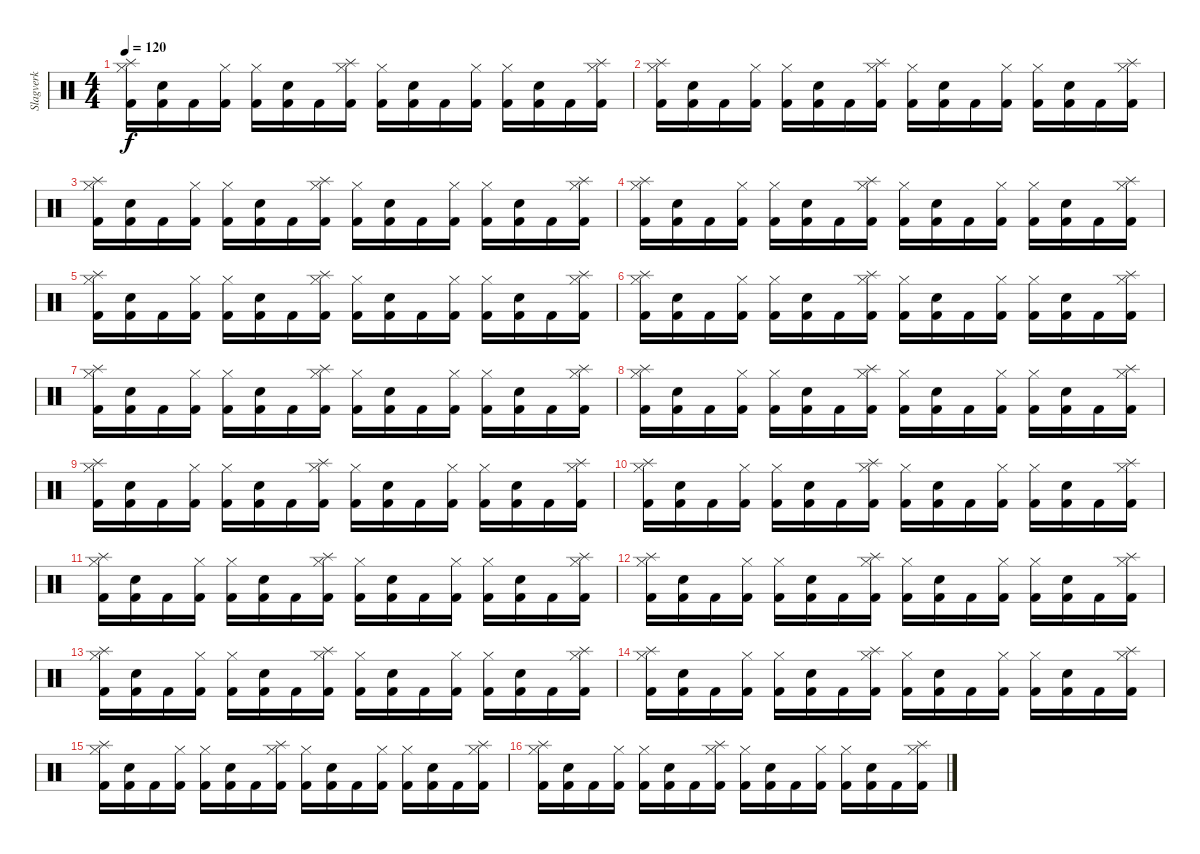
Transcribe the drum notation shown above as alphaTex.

\track ("Slagverk" "Slagverk") {instrument percussion}
\staff {score}
\articulation defaults
\ts (4 4)
\tempo 120
\clef neutral
\ks c
("Kick (hit) 2" "Hi-Hat (closed)" "Splash (hit)").16{dy f} ("Kick (hit) 2" "Electric Snare (hit)").16 "Kick (hit) 2".16 ("Kick (hit) 2" "Hi-Hat (closed)").16 ("Kick (hit) 2" "Hi-Hat (closed)").16 ("Kick (hit) 2" "Electric Snare (hit)").16 "Kick (hit) 2".16 ("Kick (hit) 2" "Hi-Hat (closed)" "Splash (hit)").16 ("Kick (hit) 2" "Hi-Hat (closed)").16 ("Kick (hit) 2" "Electric Snare (hit)").16 "Kick (hit) 2".16 ("Kick (hit) 2" "Hi-Hat (closed)").16 ("Kick (hit) 2" "Hi-Hat (closed)").16 ("Kick (hit) 2" "Electric Snare (hit)").16 "Kick (hit) 2".16 ("Kick (hit) 2" "Hi-Hat (closed)" "Splash (hit)").16 |
("Kick (hit) 2" "Hi-Hat (closed)" "Splash (hit)").16 ("Kick (hit) 2" "Electric Snare (hit)").16 "Kick (hit) 2".16 ("Kick (hit) 2" "Hi-Hat (closed)").16 ("Kick (hit) 2" "Hi-Hat (closed)").16 ("Kick (hit) 2" "Electric Snare (hit)").16 "Kick (hit) 2".16 ("Kick (hit) 2" "Hi-Hat (closed)" "Splash (hit)").16 ("Kick (hit) 2" "Hi-Hat (closed)").16 ("Kick (hit) 2" "Electric Snare (hit)").16 "Kick (hit) 2".16 ("Kick (hit) 2" "Hi-Hat (closed)").16 ("Kick (hit) 2" "Hi-Hat (closed)").16 ("Kick (hit) 2" "Electric Snare (hit)").16 "Kick (hit) 2".16 ("Kick (hit) 2" "Hi-Hat (closed)" "Splash (hit)").16 |
("Kick (hit) 2" "Hi-Hat (closed)" "Splash (hit)").16 ("Kick (hit) 2" "Electric Snare (hit)").16 "Kick (hit) 2".16 ("Kick (hit) 2" "Hi-Hat (closed)").16 ("Kick (hit) 2" "Hi-Hat (closed)").16 ("Kick (hit) 2" "Electric Snare (hit)").16 "Kick (hit) 2".16 ("Kick (hit) 2" "Hi-Hat (closed)" "Splash (hit)").16 ("Kick (hit) 2" "Hi-Hat (closed)").16 ("Kick (hit) 2" "Electric Snare (hit)").16 "Kick (hit) 2".16 ("Kick (hit) 2" "Hi-Hat (closed)").16 ("Kick (hit) 2" "Hi-Hat (closed)").16 ("Kick (hit) 2" "Electric Snare (hit)").16 "Kick (hit) 2".16 ("Kick (hit) 2" "Hi-Hat (closed)" "Splash (hit)").16 |
("Kick (hit) 2" "Hi-Hat (closed)" "Splash (hit)").16 ("Kick (hit) 2" "Electric Snare (hit)").16 "Kick (hit) 2".16 ("Kick (hit) 2" "Hi-Hat (closed)").16 ("Kick (hit) 2" "Hi-Hat (closed)").16 ("Kick (hit) 2" "Electric Snare (hit)").16 "Kick (hit) 2".16 ("Kick (hit) 2" "Hi-Hat (closed)" "Splash (hit)").16 ("Kick (hit) 2" "Hi-Hat (closed)").16 ("Kick (hit) 2" "Electric Snare (hit)").16 "Kick (hit) 2".16 ("Kick (hit) 2" "Hi-Hat (closed)").16 ("Kick (hit) 2" "Hi-Hat (closed)").16 ("Kick (hit) 2" "Electric Snare (hit)").16 "Kick (hit) 2".16 ("Kick (hit) 2" "Hi-Hat (closed)" "Splash (hit)").16 |
("Kick (hit) 2" "Hi-Hat (closed)" "Splash (hit)").16 ("Kick (hit) 2" "Electric Snare (hit)").16 "Kick (hit) 2".16 ("Kick (hit) 2" "Hi-Hat (closed)").16 ("Kick (hit) 2" "Hi-Hat (closed)").16 ("Kick (hit) 2" "Electric Snare (hit)").16 "Kick (hit) 2".16 ("Kick (hit) 2" "Hi-Hat (closed)" "Splash (hit)").16 ("Kick (hit) 2" "Hi-Hat (closed)").16 ("Kick (hit) 2" "Electric Snare (hit)").16 "Kick (hit) 2".16 ("Kick (hit) 2" "Hi-Hat (closed)").16 ("Kick (hit) 2" "Hi-Hat (closed)").16 ("Kick (hit) 2" "Electric Snare (hit)").16 "Kick (hit) 2".16 ("Kick (hit) 2" "Hi-Hat (closed)" "Splash (hit)").16 |
("Kick (hit) 2" "Hi-Hat (closed)" "Splash (hit)").16 ("Kick (hit) 2" "Electric Snare (hit)").16 "Kick (hit) 2".16 ("Kick (hit) 2" "Hi-Hat (closed)").16 ("Kick (hit) 2" "Hi-Hat (closed)").16 ("Kick (hit) 2" "Electric Snare (hit)").16 "Kick (hit) 2".16 ("Kick (hit) 2" "Hi-Hat (closed)" "Splash (hit)").16 ("Kick (hit) 2" "Hi-Hat (closed)").16 ("Kick (hit) 2" "Electric Snare (hit)").16 "Kick (hit) 2".16 ("Kick (hit) 2" "Hi-Hat (closed)").16 ("Kick (hit) 2" "Hi-Hat (closed)").16 ("Kick (hit) 2" "Electric Snare (hit)").16 "Kick (hit) 2".16 ("Kick (hit) 2" "Hi-Hat (closed)" "Splash (hit)").16 |
("Kick (hit) 2" "Hi-Hat (closed)" "Splash (hit)").16 ("Kick (hit) 2" "Electric Snare (hit)").16 "Kick (hit) 2".16 ("Kick (hit) 2" "Hi-Hat (closed)").16 ("Kick (hit) 2" "Hi-Hat (closed)").16 ("Kick (hit) 2" "Electric Snare (hit)").16 "Kick (hit) 2".16 ("Kick (hit) 2" "Hi-Hat (closed)" "Splash (hit)").16 ("Kick (hit) 2" "Hi-Hat (closed)").16 ("Kick (hit) 2" "Electric Snare (hit)").16 "Kick (hit) 2".16 ("Kick (hit) 2" "Hi-Hat (closed)").16 ("Kick (hit) 2" "Hi-Hat (closed)").16 ("Kick (hit) 2" "Electric Snare (hit)").16 "Kick (hit) 2".16 ("Kick (hit) 2" "Hi-Hat (closed)" "Splash (hit)").16 |
("Kick (hit) 2" "Hi-Hat (closed)" "Splash (hit)").16 ("Kick (hit) 2" "Electric Snare (hit)").16 "Kick (hit) 2".16 ("Kick (hit) 2" "Hi-Hat (closed)").16 ("Kick (hit) 2" "Hi-Hat (closed)").16 ("Kick (hit) 2" "Electric Snare (hit)").16 "Kick (hit) 2".16 ("Kick (hit) 2" "Hi-Hat (closed)" "Splash (hit)").16 ("Kick (hit) 2" "Hi-Hat (closed)").16 ("Kick (hit) 2" "Electric Snare (hit)").16 "Kick (hit) 2".16 ("Kick (hit) 2" "Hi-Hat (closed)").16 ("Kick (hit) 2" "Hi-Hat (closed)").16 ("Kick (hit) 2" "Electric Snare (hit)").16 "Kick (hit) 2".16 ("Kick (hit) 2" "Hi-Hat (closed)" "Splash (hit)").16 |
("Kick (hit) 2" "Hi-Hat (closed)" "Splash (hit)").16 ("Kick (hit) 2" "Electric Snare (hit)").16 "Kick (hit) 2".16 ("Kick (hit) 2" "Hi-Hat (closed)").16 ("Kick (hit) 2" "Hi-Hat (closed)").16 ("Kick (hit) 2" "Electric Snare (hit)").16 "Kick (hit) 2".16 ("Kick (hit) 2" "Hi-Hat (closed)" "Splash (hit)").16 ("Kick (hit) 2" "Hi-Hat (closed)").16 ("Kick (hit) 2" "Electric Snare (hit)").16 "Kick (hit) 2".16 ("Kick (hit) 2" "Hi-Hat (closed)").16 ("Kick (hit) 2" "Hi-Hat (closed)").16 ("Kick (hit) 2" "Electric Snare (hit)").16 "Kick (hit) 2".16 ("Kick (hit) 2" "Hi-Hat (closed)" "Splash (hit)").16 |
("Kick (hit) 2" "Hi-Hat (closed)" "Splash (hit)").16 ("Kick (hit) 2" "Electric Snare (hit)").16 "Kick (hit) 2".16 ("Kick (hit) 2" "Hi-Hat (closed)").16 ("Kick (hit) 2" "Hi-Hat (closed)").16 ("Kick (hit) 2" "Electric Snare (hit)").16 "Kick (hit) 2".16 ("Kick (hit) 2" "Hi-Hat (closed)" "Splash (hit)").16 ("Kick (hit) 2" "Hi-Hat (closed)").16 ("Kick (hit) 2" "Electric Snare (hit)").16 "Kick (hit) 2".16 ("Kick (hit) 2" "Hi-Hat (closed)").16 ("Kick (hit) 2" "Hi-Hat (closed)").16 ("Kick (hit) 2" "Electric Snare (hit)").16 "Kick (hit) 2".16 ("Kick (hit) 2" "Hi-Hat (closed)" "Splash (hit)").16 |
("Kick (hit) 2" "Hi-Hat (closed)" "Splash (hit)").16 ("Kick (hit) 2" "Electric Snare (hit)").16 "Kick (hit) 2".16 ("Kick (hit) 2" "Hi-Hat (closed)").16 ("Kick (hit) 2" "Hi-Hat (closed)").16 ("Kick (hit) 2" "Electric Snare (hit)").16 "Kick (hit) 2".16 ("Kick (hit) 2" "Hi-Hat (closed)" "Splash (hit)").16 ("Kick (hit) 2" "Hi-Hat (closed)").16 ("Kick (hit) 2" "Electric Snare (hit)").16 "Kick (hit) 2".16 ("Kick (hit) 2" "Hi-Hat (closed)").16 ("Kick (hit) 2" "Hi-Hat (closed)").16 ("Kick (hit) 2" "Electric Snare (hit)").16 "Kick (hit) 2".16 ("Kick (hit) 2" "Hi-Hat (closed)" "Splash (hit)").16 |
("Kick (hit) 2" "Hi-Hat (closed)" "Splash (hit)").16 ("Kick (hit) 2" "Electric Snare (hit)").16 "Kick (hit) 2".16 ("Kick (hit) 2" "Hi-Hat (closed)").16 ("Kick (hit) 2" "Hi-Hat (closed)").16 ("Kick (hit) 2" "Electric Snare (hit)").16 "Kick (hit) 2".16 ("Kick (hit) 2" "Hi-Hat (closed)" "Splash (hit)").16 ("Kick (hit) 2" "Hi-Hat (closed)").16 ("Kick (hit) 2" "Electric Snare (hit)").16 "Kick (hit) 2".16 ("Kick (hit) 2" "Hi-Hat (closed)").16 ("Kick (hit) 2" "Hi-Hat (closed)").16 ("Kick (hit) 2" "Electric Snare (hit)").16 "Kick (hit) 2".16 ("Kick (hit) 2" "Hi-Hat (closed)" "Splash (hit)").16 |
("Kick (hit) 2" "Hi-Hat (closed)" "Splash (hit)").16 ("Kick (hit) 2" "Electric Snare (hit)").16 "Kick (hit) 2".16 ("Kick (hit) 2" "Hi-Hat (closed)").16 ("Kick (hit) 2" "Hi-Hat (closed)").16 ("Kick (hit) 2" "Electric Snare (hit)").16 "Kick (hit) 2".16 ("Kick (hit) 2" "Hi-Hat (closed)" "Splash (hit)").16 ("Kick (hit) 2" "Hi-Hat (closed)").16 ("Kick (hit) 2" "Electric Snare (hit)").16 "Kick (hit) 2".16 ("Kick (hit) 2" "Hi-Hat (closed)").16 ("Kick (hit) 2" "Hi-Hat (closed)").16 ("Kick (hit) 2" "Electric Snare (hit)").16 "Kick (hit) 2".16 ("Kick (hit) 2" "Hi-Hat (closed)" "Splash (hit)").16 |
("Kick (hit) 2" "Hi-Hat (closed)" "Splash (hit)").16 ("Kick (hit) 2" "Electric Snare (hit)").16 "Kick (hit) 2".16 ("Kick (hit) 2" "Hi-Hat (closed)").16 ("Kick (hit) 2" "Hi-Hat (closed)").16 ("Kick (hit) 2" "Electric Snare (hit)").16 "Kick (hit) 2".16 ("Kick (hit) 2" "Hi-Hat (closed)" "Splash (hit)").16 ("Kick (hit) 2" "Hi-Hat (closed)").16 ("Kick (hit) 2" "Electric Snare (hit)").16 "Kick (hit) 2".16 ("Kick (hit) 2" "Hi-Hat (closed)").16 ("Kick (hit) 2" "Hi-Hat (closed)").16 ("Kick (hit) 2" "Electric Snare (hit)").16 "Kick (hit) 2".16 ("Kick (hit) 2" "Hi-Hat (closed)" "Splash (hit)").16 |
("Kick (hit) 2" "Hi-Hat (closed)" "Splash (hit)").16 ("Kick (hit) 2" "Electric Snare (hit)").16 "Kick (hit) 2".16 ("Kick (hit) 2" "Hi-Hat (closed)").16 ("Kick (hit) 2" "Hi-Hat (closed)").16 ("Kick (hit) 2" "Electric Snare (hit)").16 "Kick (hit) 2".16 ("Kick (hit) 2" "Hi-Hat (closed)" "Splash (hit)").16 ("Kick (hit) 2" "Hi-Hat (closed)").16 ("Kick (hit) 2" "Electric Snare (hit)").16 "Kick (hit) 2".16 ("Kick (hit) 2" "Hi-Hat (closed)").16 ("Kick (hit) 2" "Hi-Hat (closed)").16 ("Kick (hit) 2" "Electric Snare (hit)").16 "Kick (hit) 2".16 ("Kick (hit) 2" "Hi-Hat (closed)" "Splash (hit)").16 |
("Kick (hit) 2" "Hi-Hat (closed)" "Splash (hit)").16 ("Kick (hit) 2" "Electric Snare (hit)").16 "Kick (hit) 2".16 ("Kick (hit) 2" "Hi-Hat (closed)").16 ("Kick (hit) 2" "Hi-Hat (closed)").16 ("Kick (hit) 2" "Electric Snare (hit)").16 "Kick (hit) 2".16 ("Kick (hit) 2" "Hi-Hat (closed)" "Splash (hit)").16 ("Kick (hit) 2" "Hi-Hat (closed)").16 ("Kick (hit) 2" "Electric Snare (hit)").16 "Kick (hit) 2".16 ("Kick (hit) 2" "Hi-Hat (closed)").16 ("Kick (hit) 2" "Hi-Hat (closed)").16 ("Kick (hit) 2" "Electric Snare (hit)").16 "Kick (hit) 2".16 ("Kick (hit) 2" "Hi-Hat (closed)" "Splash (hit)").16
